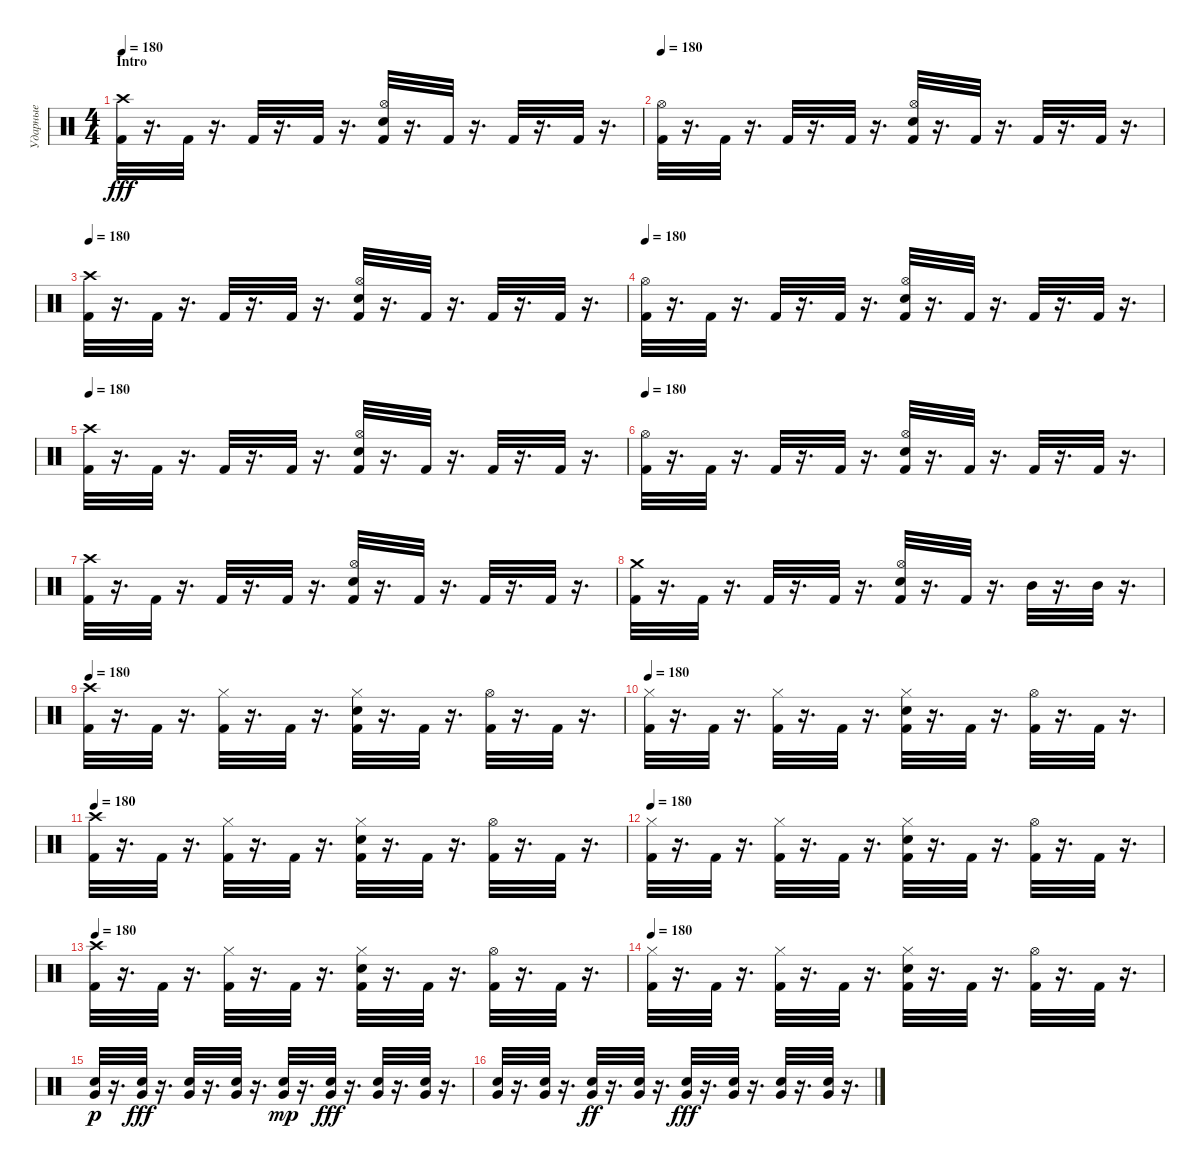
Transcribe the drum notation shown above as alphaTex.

\track ("Ударные" "Ударные") {instrument percussion}
\staff {score}
\articulation defaults
\ts (4 4)
\section ("" "Intro")
\tempo 180
\clef neutral
\ks c
("Crash high (hit)" "Kick (hit) 2").32{dy fff} r.16{d} "Kick (hit) 2".32 r.16{d} "Kick (hit) 2".32 r.16{d} "Kick (hit) 2".32 r.16{d} ("Kick (hit) 2" "Hi-Hat (open)" "Snare (hit) 2").32 r.16{d} "Kick (hit) 2".32 r.16{d} "Kick (hit) 2".32 r.16{d} "Kick (hit) 2".32 r.16{d} |
\tempo 180
("Hi-Hat (open)" "Kick (hit) 2").32 r.16{d} "Kick (hit) 2".32 r.16{d} "Kick (hit) 2".32 r.16{d} "Kick (hit) 2".32 r.16{d} ("Kick (hit) 2" "Snare (hit) 2" "Hi-Hat (open)").32 r.16{d} "Kick (hit) 2".32 r.16{d} "Kick (hit) 2".32 r.16{d} "Kick (hit) 2".32 r.16{d} |
\tempo 180
("Crash high (hit)" "Kick (hit) 2").32 r.16{d} "Kick (hit) 2".32 r.16{d} "Kick (hit) 2".32 r.16{d} "Kick (hit) 2".32 r.16{d} ("Snare (hit) 2" "Hi-Hat (open)" "Kick (hit) 2").32 r.16{d} "Kick (hit) 2".32 r.16{d} "Kick (hit) 2".32 r.16{d} "Kick (hit) 2".32 r.16{d} |
\tempo 180
("Hi-Hat (open)" "Kick (hit) 2").32 r.16{d} "Kick (hit) 2".32 r.16{d} "Kick (hit) 2".32 r.16{d} "Kick (hit) 2".32 r.16{d} ("Hi-Hat (open)" "Kick (hit) 2" "Snare (hit) 2").32 r.16{d} "Kick (hit) 2".32 r.16{d} "Kick (hit) 2".32 r.16{d} "Kick (hit) 2".32 r.16{d} |
\tempo 180
("Crash high (hit)" "Kick (hit) 2").32 r.16{d} "Kick (hit) 2".32 r.16{d} "Kick (hit) 2".32 r.16{d} "Kick (hit) 2".32 r.16{d} ("Kick (hit) 2" "Hi-Hat (open)" "Snare (hit) 2").32 r.16{d} "Kick (hit) 2".32 r.16{d} "Kick (hit) 2".32 r.16{d} "Kick (hit) 2".32 r.16{d} |
\tempo 180
("Hi-Hat (open)" "Kick (hit) 2").32 r.16{d} "Kick (hit) 2".32 r.16{d} "Kick (hit) 2".32 r.16{d} "Kick (hit) 2".32 r.16{d} ("Kick (hit) 2" "Snare (hit) 2" "Hi-Hat (open)").32 r.16{d} "Kick (hit) 2".32 r.16{d} "Kick (hit) 2".32 r.16{d} "Kick (hit) 2".32 r.16{d} |
("Kick (hit) 2" "Crash high (hit)").32 r.16{d} "Kick (hit) 2".32 r.16{d} "Kick (hit) 2".32 r.16{d} "Kick (hit) 2".32 r.16{d} ("Kick (hit) 2" "Snare (hit) 2" "Hi-Hat (open)").32 r.16{d} "Kick (hit) 2".32 r.16{d} "Kick (hit) 2".32 r.16{d} "Kick (hit) 2".32 r.16{d} |
("Kick (hit) 2" "Crash medium (hit)").32 r.16{d} "Kick (hit) 2".32 r.16{d} "Kick (hit) 2".32 r.16{d} "Kick (hit) 2".32 r.16{d} ("Kick (hit) 2" "Hi-Hat (open)" "Snare (hit) 2").32 r.16{d} "Kick (hit) 2".32 r.16{d} "Mid Tom (hit)".32 r.16{d} "Mid Tom (hit)".32 r.16{d} |
\tempo 180
("Crash high (hit)" "Kick (hit) 2").32 r.16{d} "Kick (hit) 2".32 r.16{d} ("Kick (hit) 2" "Hi-Hat (closed)").32 r.16{d} "Kick (hit) 2".32 r.16{d} ("Hi-Hat (closed)" "Kick (hit) 2" "Snare (hit) 2").32 r.16{d} "Kick (hit) 2".32 r.16{d} ("Hi-Hat (open)" "Kick (hit) 2").32 r.16{d} "Kick (hit) 2".32 r.16{d} |
\tempo 180
("Kick (hit) 2" "Hi-Hat (closed)").32 r.16{d} "Kick (hit) 2".32 r.16{d} ("Hi-Hat (closed)" "Kick (hit) 2").32 r.16{d} "Kick (hit) 2".32 r.16{d} ("Snare (hit) 2" "Hi-Hat (closed)" "Kick (hit) 2").32 r.16{d} "Kick (hit) 2".32 r.16{d} ("Hi-Hat (open)" "Kick (hit) 2").32 r.16{d} "Kick (hit) 2".32 r.16{d} |
\tempo 180
("Kick (hit) 2" "Crash high (hit)").32 r.16{d} "Kick (hit) 2".32 r.16{d} ("Hi-Hat (closed)" "Kick (hit) 2").32 r.16{d} "Kick (hit) 2".32 r.16{d} ("Kick (hit) 2" "Snare (hit) 2" "Hi-Hat (closed)").32 r.16{d} "Kick (hit) 2".32 r.16{d} ("Kick (hit) 2" "Hi-Hat (open)").32 r.16{d} "Kick (hit) 2".32 r.16{d} |
\tempo 180
("Hi-Hat (closed)" "Kick (hit) 2").32 r.16{d} "Kick (hit) 2".32 r.16{d} ("Hi-Hat (closed)" "Kick (hit) 2").32 r.16{d} "Kick (hit) 2".32 r.16{d} ("Kick (hit) 2" "Snare (hit) 2" "Hi-Hat (closed)").32 r.16{d} "Kick (hit) 2".32 r.16{d} ("Kick (hit) 2" "Hi-Hat (open)").32 r.16{d} "Kick (hit) 2".32 r.16{d} |
\tempo 180
("Crash high (hit)" "Kick (hit) 2").32 r.16{d} "Kick (hit) 2".32 r.16{d} ("Hi-Hat (closed)" "Kick (hit) 2").32 r.16{d} "Kick (hit) 2".32 r.16{d} ("Hi-Hat (closed)" "Kick (hit) 2" "Snare (hit) 2").32 r.16{d} "Kick (hit) 2".32 r.16{d} ("Hi-Hat (open)" "Kick (hit) 2").32 r.16{d} "Kick (hit) 2".32 r.16{d} |
\tempo 180
("Kick (hit) 2" "Hi-Hat (closed)").32 r.16{d} "Kick (hit) 2".32 r.16{d} ("Kick (hit) 2" "Hi-Hat (closed)").32 r.16{d} "Kick (hit) 2".32 r.16{d} ("Kick (hit) 2" "Snare (hit) 2" "Hi-Hat (closed)").32 r.16{d} "Kick (hit) 2".32 r.16{d} ("Hi-Hat (open)" "Kick (hit) 2").32 r.16{d} "Kick (hit) 2".32 r.16{d} |
("Snare (hit) 2" "Very Low Tom (hit)").32{dy p} r.16{d} ("Very Low Tom (hit)" "Snare (hit) 2").32{dy fff} r.16{d} ("Very Low Tom (hit)" "Snare (hit) 2").32 r.16{d} ("Very Low Tom (hit)" "Snare (hit) 2").32 r.16{d} ("Snare (hit) 2" "Very Low Tom (hit)").32{dy mp} r.16{d} ("Very Low Tom (hit)" "Snare (hit) 2").32{dy fff} r.16{d} ("Very Low Tom (hit)" "Snare (hit) 2").32 r.16{d} ("Very Low Tom (hit)" "Snare (hit) 2").32 r.16{d} |
("Very Low Tom (hit)" "Snare (hit) 2").32 r.16{d} ("Snare (hit) 2" "Very Low Tom (hit)").32 r.16{d} ("Snare (hit) 2" "Very Low Tom (hit)").32{dy ff} r.16{d} ("Snare (hit) 2" "Very Low Tom (hit)").32 r.16{d} ("Very Low Tom (hit)" "Snare (hit) 2").32{dy fff} r.16{d} ("Snare (hit) 2" "Very Low Tom (hit)").32 r.16{d} ("Very Low Tom (hit)" "Snare (hit) 2").32 r.16{d} ("Very Low Tom (hit)" "Snare (hit) 2").32 r.16{d}
